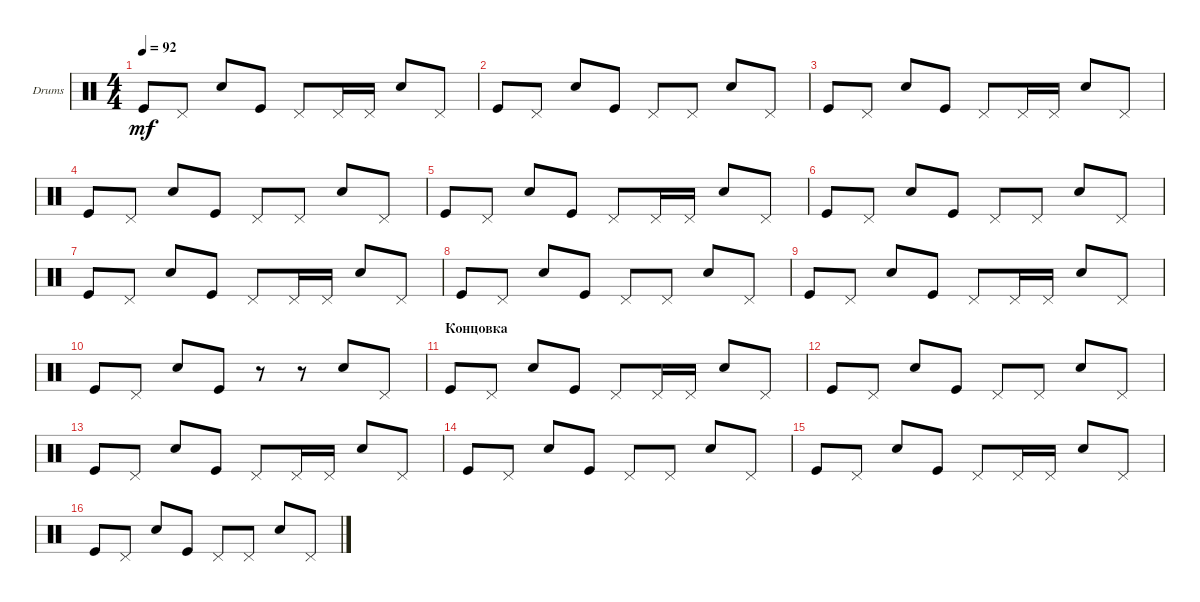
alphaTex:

\defaultSystemsLayout 4
\bracketExtendMode groupsimilarinstruments
\firstSystemTrackNameOrientation horizontal
\otherSystemsTrackNameOrientation horizontal
\track ("Drumkit" "Drums") {instrument percussion}
\staff {score}
\articulation defaults
\ts (4 4)
\tempo 92
\clef neutral
\ks c "Kick (hit)".8{dy mf} "Pedal Hi-Hat (hit)".8 "Snare (hit) 2".8 "Kick (hit)".8 "Pedal Hi-Hat (hit)".8 "Pedal Hi-Hat (hit)".16 "Pedal Hi-Hat (hit)".16 "Snare (hit) 2".8 "Pedal Hi-Hat (hit)".8
|
"Kick (hit)".8 "Pedal Hi-Hat (hit)".8 "Snare (hit) 2".8 "Kick (hit)".8 "Pedal Hi-Hat (hit)".8 "Pedal Hi-Hat (hit)".8 "Snare (hit) 2".8 "Pedal Hi-Hat (hit)".8 |
"Kick (hit)".8 "Pedal Hi-Hat (hit)".8 "Snare (hit) 2".8 "Kick (hit)".8 "Pedal Hi-Hat (hit)".8 "Pedal Hi-Hat (hit)".16 "Pedal Hi-Hat (hit)".16 "Snare (hit) 2".8 "Pedal Hi-Hat (hit)".8 |
"Kick (hit)".8 "Pedal Hi-Hat (hit)".8 "Snare (hit) 2".8 "Kick (hit)".8 "Pedal Hi-Hat (hit)".8 "Pedal Hi-Hat (hit)".8 "Snare (hit) 2".8 "Pedal Hi-Hat (hit)".8 |
"Kick (hit)".8 "Pedal Hi-Hat (hit)".8 "Snare (hit) 2".8 "Kick (hit)".8 "Pedal Hi-Hat (hit)".8 "Pedal Hi-Hat (hit)".16 "Pedal Hi-Hat (hit)".16 "Snare (hit) 2".8 "Pedal Hi-Hat (hit)".8 |
"Kick (hit)".8 "Pedal Hi-Hat (hit)".8 "Snare (hit) 2".8 "Kick (hit)".8 "Pedal Hi-Hat (hit)".8 "Pedal Hi-Hat (hit)".8 "Snare (hit) 2".8 "Pedal Hi-Hat (hit)".8 |
"Kick (hit)".8 "Pedal Hi-Hat (hit)".8 "Snare (hit) 2".8 "Kick (hit)".8 "Pedal Hi-Hat (hit)".8 "Pedal Hi-Hat (hit)".16 "Pedal Hi-Hat (hit)".16 "Snare (hit) 2".8 "Pedal Hi-Hat (hit)".8 |
"Kick (hit)".8 "Pedal Hi-Hat (hit)".8 "Snare (hit) 2".8 "Kick (hit)".8 "Pedal Hi-Hat (hit)".8 "Pedal Hi-Hat (hit)".8 "Snare (hit) 2".8 "Pedal Hi-Hat (hit)".8 |
"Kick (hit)".8 "Pedal Hi-Hat (hit)".8 "Snare (hit) 2".8 "Kick (hit)".8 "Pedal Hi-Hat (hit)".8 "Pedal Hi-Hat (hit)".16 "Pedal Hi-Hat (hit)".16 "Snare (hit) 2".8 "Pedal Hi-Hat (hit)".8 |
"Kick (hit)".8 "Pedal Hi-Hat (hit)".8 "Snare (hit) 2".8 "Kick (hit)".8 r.8 r.8 "Snare (hit) 2".8 "Pedal Hi-Hat (hit)".8 |
\section ("" "Концовка")
"Kick (hit)".8 "Pedal Hi-Hat (hit)".8 "Snare (hit) 2".8 "Kick (hit)".8 "Pedal Hi-Hat (hit)".8 "Pedal Hi-Hat (hit)".16 "Pedal Hi-Hat (hit)".16 "Snare (hit) 2".8 "Pedal Hi-Hat (hit)".8 |
"Kick (hit)".8 "Pedal Hi-Hat (hit)".8 "Snare (hit) 2".8 "Kick (hit)".8 "Pedal Hi-Hat (hit)".8 "Pedal Hi-Hat (hit)".8 "Snare (hit) 2".8 "Pedal Hi-Hat (hit)".8 |
"Kick (hit)".8 "Pedal Hi-Hat (hit)".8 "Snare (hit) 2".8 "Kick (hit)".8 "Pedal Hi-Hat (hit)".8 "Pedal Hi-Hat (hit)".16 "Pedal Hi-Hat (hit)".16 "Snare (hit) 2".8 "Pedal Hi-Hat (hit)".8 |
"Kick (hit)".8 "Pedal Hi-Hat (hit)".8 "Snare (hit) 2".8 "Kick (hit)".8 "Pedal Hi-Hat (hit)".8 "Pedal Hi-Hat (hit)".8 "Snare (hit) 2".8 "Pedal Hi-Hat (hit)".8 |
"Kick (hit)".8 "Pedal Hi-Hat (hit)".8 "Snare (hit) 2".8 "Kick (hit)".8 "Pedal Hi-Hat (hit)".8 "Pedal Hi-Hat (hit)".16 "Pedal Hi-Hat (hit)".16 "Snare (hit) 2".8 "Pedal Hi-Hat (hit)".8 |
"Kick (hit)".8 "Pedal Hi-Hat (hit)".8 "Snare (hit) 2".8 "Kick (hit)".8 "Pedal Hi-Hat (hit)".8 "Pedal Hi-Hat (hit)".8 "Snare (hit) 2".8 "Pedal Hi-Hat (hit)".8
